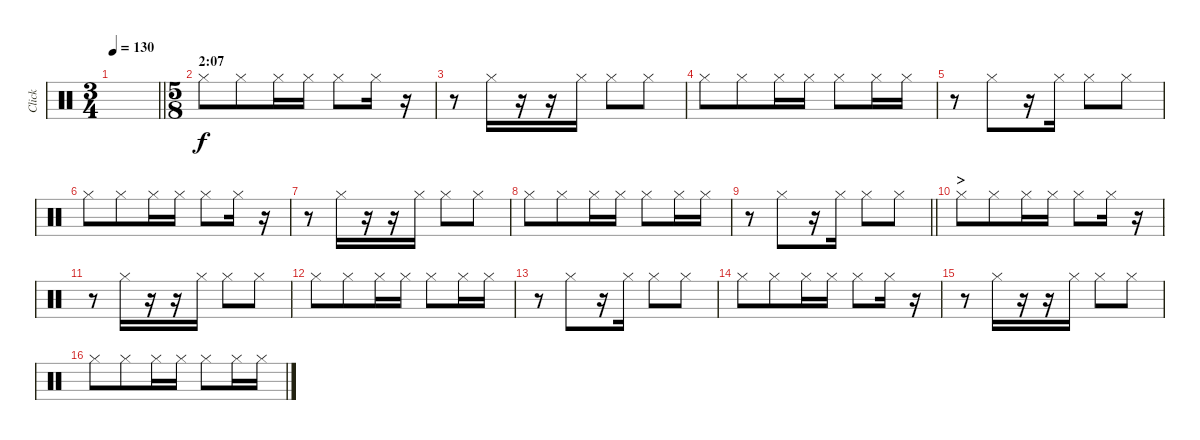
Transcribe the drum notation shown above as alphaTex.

\track ("Click" "Click") {instrument percussion}
\staff {score}
\articulation defaults
\ts (3 4)
\tempo 130
\clef neutral
\barLineRight lightlight
\ks c
|
\ts (5 8)
\section ("" "2:07")
"Hi-Hat (closed)".8 "Hi-Hat (closed)".8 "Hi-Hat (closed)".16 "Hi-Hat (closed)".16 "Hi-Hat (closed)".8 "Hi-Hat (closed)".16 r.16 |
r.8 "Hi-Hat (closed)".16 r.16 r.16 "Hi-Hat (closed)".16 "Hi-Hat (closed)".8 "Hi-Hat (closed)".8 |
"Hi-Hat (closed)".8 "Hi-Hat (closed)".8 "Hi-Hat (closed)".16 "Hi-Hat (closed)".16 "Hi-Hat (closed)".8 "Hi-Hat (closed)".16 "Hi-Hat (closed)".16 |
r.8 "Hi-Hat (closed)".8 r.16 "Hi-Hat (closed)".16 "Hi-Hat (closed)".8 "Hi-Hat (closed)".8 |
"Hi-Hat (closed)".8 "Hi-Hat (closed)".8 "Hi-Hat (closed)".16 "Hi-Hat (closed)".16 "Hi-Hat (closed)".8 "Hi-Hat (closed)".16 r.16 |
r.8 "Hi-Hat (closed)".16 r.16 r.16 "Hi-Hat (closed)".16 "Hi-Hat (closed)".8 "Hi-Hat (closed)".8 |
"Hi-Hat (closed)".8 "Hi-Hat (closed)".8 "Hi-Hat (closed)".16 "Hi-Hat (closed)".16 "Hi-Hat (closed)".8 "Hi-Hat (closed)".16 "Hi-Hat (closed)".16 |
\barLineRight lightlight
r.8 "Hi-Hat (closed)".8 r.16 "Hi-Hat (closed)".16 "Hi-Hat (closed)".8 "Hi-Hat (closed)".8 |
\section ("" ">")
"Hi-Hat (closed)".8 "Hi-Hat (closed)".8 "Hi-Hat (closed)".16 "Hi-Hat (closed)".16 "Hi-Hat (closed)".8 "Hi-Hat (closed)".16 r.16 |
r.8 "Hi-Hat (closed)".16 r.16 r.16 "Hi-Hat (closed)".16 "Hi-Hat (closed)".8 "Hi-Hat (closed)".8 |
"Hi-Hat (closed)".8 "Hi-Hat (closed)".8 "Hi-Hat (closed)".16 "Hi-Hat (closed)".16 "Hi-Hat (closed)".8 "Hi-Hat (closed)".16 "Hi-Hat (closed)".16 |
r.8 "Hi-Hat (closed)".8 r.16 "Hi-Hat (closed)".16 "Hi-Hat (closed)".8 "Hi-Hat (closed)".8 |
"Hi-Hat (closed)".8 "Hi-Hat (closed)".8 "Hi-Hat (closed)".16 "Hi-Hat (closed)".16 "Hi-Hat (closed)".8 "Hi-Hat (closed)".16 r.16 |
r.8 "Hi-Hat (closed)".16 r.16 r.16 "Hi-Hat (closed)".16 "Hi-Hat (closed)".8 "Hi-Hat (closed)".8 |
"Hi-Hat (closed)".8 "Hi-Hat (closed)".8 "Hi-Hat (closed)".16 "Hi-Hat (closed)".16 "Hi-Hat (closed)".8 "Hi-Hat (closed)".16 "Hi-Hat (closed)".16
